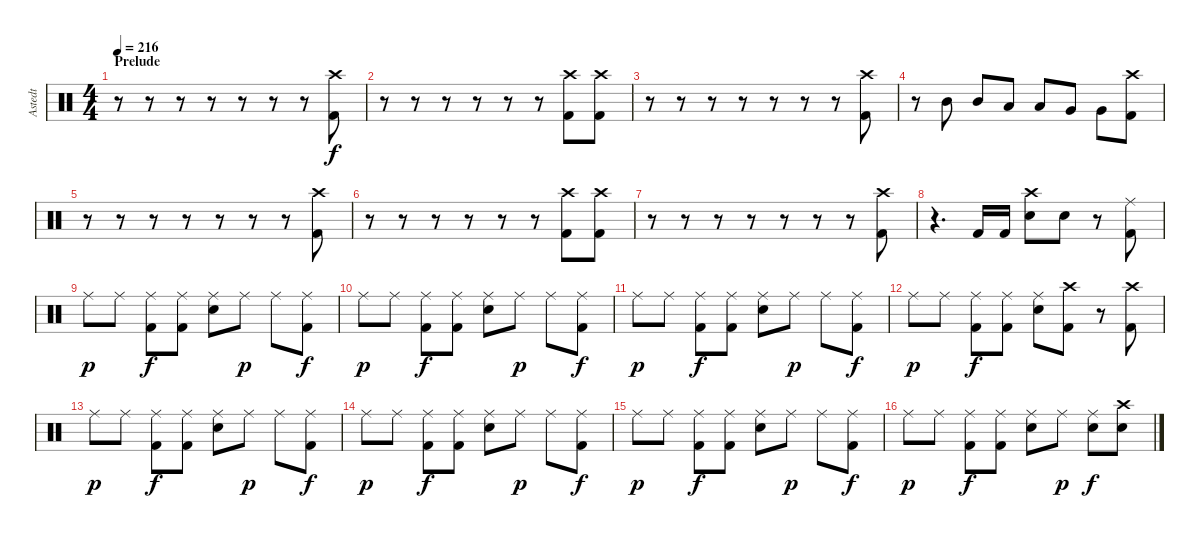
\track ("Astedt" "Astedt") {instrument percussion}
\staff {score}
\articulation defaults
\ts (4 4)
\section ("" "Prelude")
\tempo 216
\clef neutral
\ks c
r.8{dy f} r.8 r.8 r.8 r.8 r.8 r.8 ("Crash high (hit)" "Kick (hit) 2").8 |
r.8 r.8 r.8 r.8 r.8 r.8 ("Crash high (hit)" "Kick (hit) 2").8 ("Crash high (hit)" "Kick (hit) 2").8 |
r.8 r.8 r.8 r.8 r.8 r.8 r.8 ("Crash high (hit)" "Kick (hit) 2").8 |
r.8 "Mid Tom (hit)".8 "Mid Tom (hit)".8 "Low Tom (hit)".8 "Low Tom (hit)".8 "Very Low Tom (hit)".8 "Very Low Tom (hit)".8 ("Crash high (hit)" "Kick (hit) 2").8 |
r.8 r.8 r.8 r.8 r.8 r.8 r.8 ("Crash high (hit)" "Kick (hit) 2").8 |
r.8 r.8 r.8 r.8 r.8 r.8 ("Crash high (hit)" "Kick (hit) 2").8 ("Crash high (hit)" "Kick (hit) 2").8 |
r.8 r.8 r.8 r.8 r.8 r.8 r.8 ("Crash high (hit)" "Kick (hit) 2").8 |
r.4{d} "Kick (hit) 2".16 "Kick (hit) 2".16 ("Crash high (hit)" "Snare (hit) 2").8 "Snare (hit) 2".8 r.8 ("Ride (middle)" "Kick (hit) 2").8 |
"Ride (middle)".8{dy p} "Ride (middle)".8 ("Ride (middle)" "Kick (hit) 2").8{dy f} ("Ride (middle)" "Kick (hit) 2").8 ("Ride (middle)" "Snare (hit) 2").8 "Ride (middle)".8{dy p} "Ride (middle)".8 ("Ride (middle)" "Kick (hit) 2").8{dy f} |
"Ride (middle)".8{dy p} "Ride (middle)".8 ("Ride (middle)" "Kick (hit) 2").8{dy f} ("Ride (middle)" "Kick (hit) 2").8 ("Ride (middle)" "Snare (hit) 2").8 "Ride (middle)".8{dy p} "Ride (middle)".8 ("Ride (middle)" "Kick (hit) 2").8{dy f} |
"Ride (middle)".8{dy p} "Ride (middle)".8 ("Ride (middle)" "Kick (hit) 2").8{dy f} ("Ride (middle)" "Kick (hit) 2").8 ("Ride (middle)" "Snare (hit) 2").8 "Ride (middle)".8{dy p} "Ride (middle)".8 ("Ride (middle)" "Kick (hit) 2").8{dy f} |
"Ride (middle)".8{dy p} "Ride (middle)".8 ("Ride (middle)" "Kick (hit) 2").8{dy f} ("Ride (middle)" "Kick (hit) 2").8 ("Ride (middle)" "Snare (hit) 2").8 ("Crash high (hit)" "Kick (hit) 2").8 r.8 ("Crash high (hit)" "Kick (hit) 2").8 |
"Ride (middle)".8{dy p} "Ride (middle)".8 ("Ride (middle)" "Kick (hit) 2").8{dy f} ("Ride (middle)" "Kick (hit) 2").8 ("Ride (middle)" "Snare (hit) 2").8 "Ride (middle)".8{dy p} "Ride (middle)".8 ("Ride (middle)" "Kick (hit) 2").8{dy f} |
"Ride (middle)".8{dy p} "Ride (middle)".8 ("Ride (middle)" "Kick (hit) 2").8{dy f} ("Ride (middle)" "Kick (hit) 2").8 ("Ride (middle)" "Snare (hit) 2").8 "Ride (middle)".8{dy p} "Ride (middle)".8 ("Ride (middle)" "Kick (hit) 2").8{dy f} |
"Ride (middle)".8{dy p} "Ride (middle)".8 ("Ride (middle)" "Kick (hit) 2").8{dy f} ("Ride (middle)" "Kick (hit) 2").8 ("Ride (middle)" "Snare (hit) 2").8 "Ride (middle)".8{dy p} "Ride (middle)".8 ("Ride (middle)" "Kick (hit) 2").8{dy f} |
"Ride (middle)".8{dy p} "Ride (middle)".8 ("Ride (middle)" "Kick (hit) 2").8{dy f} ("Ride (middle)" "Kick (hit) 2").8 ("Ride (middle)" "Snare (hit) 2").8 "Ride (middle)".8{dy p} ("Ride (middle)" "Snare (hit) 2").8{dy f} ("Crash high (hit)" "Snare (hit) 2").8
